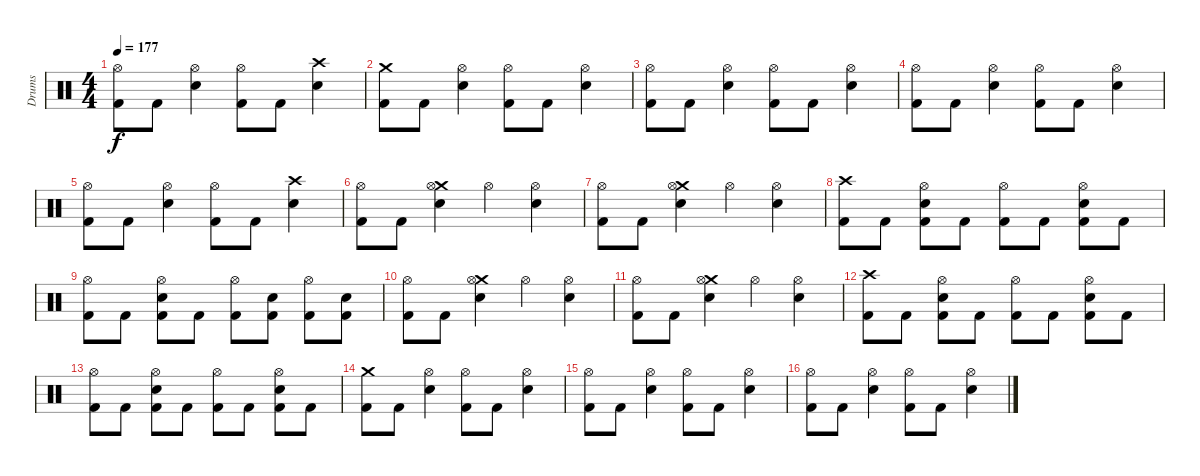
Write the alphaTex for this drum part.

\track ("Drums" "Drums") {instrument percussion}
\staff {score}
\articulation defaults
\ts (4 4)
\tempo 177
\clef neutral
\ks c
("Hi-Hat (open)" "Kick (hit) 2").8{dy f} "Kick (hit) 2".8 ("Hi-Hat (open)" "Snare (hit) 2").4 ("Hi-Hat (open)" "Kick (hit) 2").8 "Kick (hit) 2".8 ("Crash high (hit)" "Snare (hit) 2").4 |
("Crash medium (hit)" "Kick (hit) 2").8 "Kick (hit) 2".8 ("Hi-Hat (open)" "Snare (hit) 2").4 ("Hi-Hat (open)" "Kick (hit) 2").8 "Kick (hit) 2".8 ("Hi-Hat (open)" "Snare (hit) 2").4 |
("Hi-Hat (open)" "Kick (hit) 2").8 "Kick (hit) 2".8 ("Hi-Hat (open)" "Snare (hit) 2").4 ("Hi-Hat (open)" "Kick (hit) 2").8 "Kick (hit) 2".8 ("Hi-Hat (open)" "Snare (hit) 2").4 |
("Hi-Hat (open)" "Kick (hit) 2").8 "Kick (hit) 2".8 ("Hi-Hat (open)" "Snare (hit) 2").4 ("Hi-Hat (open)" "Kick (hit) 2").8 "Kick (hit) 2".8 ("Hi-Hat (open)" "Snare (hit) 2").4 |
("Hi-Hat (open)" "Kick (hit) 2").8 "Kick (hit) 2".8 ("Hi-Hat (open)" "Snare (hit) 2").4 ("Hi-Hat (open)" "Kick (hit) 2").8 "Kick (hit) 2".8 ("Crash high (hit)" "Snare (hit) 2").4 |
("Hi-Hat (open)" "Kick (hit) 2").8 "Kick (hit) 2".8 ("Crash medium (hit)" "Hi-Hat (open)" "Snare (hit) 2").4 "Hi-Hat (open)".4 ("Hi-Hat (open)" "Snare (hit) 2").4 |
("Hi-Hat (open)" "Kick (hit) 2").8 "Kick (hit) 2".8 ("Crash medium (hit)" "Hi-Hat (open)" "Snare (hit) 2").4 "Hi-Hat (open)".4 ("Hi-Hat (open)" "Snare (hit) 2").4 |
("Crash high (hit)" "Kick (hit) 2").8 "Kick (hit) 2".8 ("Hi-Hat (open)" "Snare (hit) 2" "Kick (hit) 2").8 "Kick (hit) 2".8 ("Hi-Hat (open)" "Kick (hit) 2").8 "Kick (hit) 2".8 ("Hi-Hat (open)" "Snare (hit) 2" "Kick (hit) 2").8 "Kick (hit) 2".8 |
("Hi-Hat (open)" "Kick (hit) 2").8 "Kick (hit) 2".8 ("Hi-Hat (open)" "Snare (hit) 2" "Kick (hit) 2").8 "Kick (hit) 2".8 ("Hi-Hat (open)" "Kick (hit) 2").8 ("Snare (hit) 2" "Kick (hit) 2").8 ("Hi-Hat (open)" "Kick (hit) 2").8 ("Snare (hit) 2" "Kick (hit) 2").8 |
("Hi-Hat (open)" "Kick (hit) 2").8 "Kick (hit) 2".8 ("Crash medium (hit)" "Hi-Hat (open)" "Snare (hit) 2").4 "Hi-Hat (open)".4 ("Hi-Hat (open)" "Snare (hit) 2").4 |
("Hi-Hat (open)" "Kick (hit) 2").8 "Kick (hit) 2".8 ("Crash medium (hit)" "Hi-Hat (open)" "Snare (hit) 2").4 "Hi-Hat (open)".4 ("Hi-Hat (open)" "Snare (hit) 2").4 |
("Crash high (hit)" "Kick (hit) 2").8 "Kick (hit) 2".8 ("Hi-Hat (open)" "Snare (hit) 2" "Kick (hit) 2").8 "Kick (hit) 2".8 ("Hi-Hat (open)" "Kick (hit) 2").8 "Kick (hit) 2".8 ("Hi-Hat (open)" "Snare (hit) 2" "Kick (hit) 2").8 "Kick (hit) 2".8 |
("Hi-Hat (open)" "Kick (hit) 2").8 "Kick (hit) 2".8 ("Hi-Hat (open)" "Snare (hit) 2" "Kick (hit) 2").8 "Kick (hit) 2".8 ("Hi-Hat (open)" "Kick (hit) 2").8 "Kick (hit) 2".8 ("Hi-Hat (open)" "Snare (hit) 2" "Kick (hit) 2").8 "Kick (hit) 2".8 |
("Crash medium (hit)" "Kick (hit) 2").8 "Kick (hit) 2".8 ("Hi-Hat (open)" "Snare (hit) 2").4 ("Hi-Hat (open)" "Kick (hit) 2").8 "Kick (hit) 2".8 ("Hi-Hat (open)" "Snare (hit) 2").4 |
("Hi-Hat (open)" "Kick (hit) 2").8 "Kick (hit) 2".8 ("Hi-Hat (open)" "Snare (hit) 2").4 ("Hi-Hat (open)" "Kick (hit) 2").8 "Kick (hit) 2".8 ("Hi-Hat (open)" "Snare (hit) 2").4 |
("Hi-Hat (open)" "Kick (hit) 2").8 "Kick (hit) 2".8 ("Hi-Hat (open)" "Snare (hit) 2").4 ("Hi-Hat (open)" "Kick (hit) 2").8 "Kick (hit) 2".8 ("Hi-Hat (open)" "Snare (hit) 2").4
